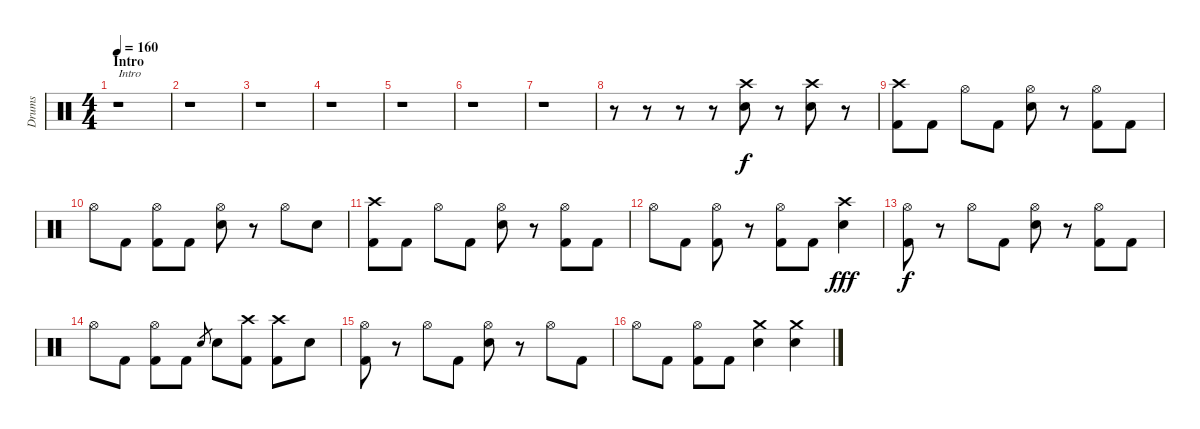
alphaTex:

\track ("Drums" "Drums") {instrument percussion}
\staff {score}
\articulation defaults
\ts (4 4)
\section ("" "Intro")
\tempo 160
\clef neutral
\ks c
r.1{txt "Intro" dy f} |
r.1 |
r.1 |
r.1 |
r.1 |
r.1 |
r.1 |
r.8 r.8 r.8 r.8 ("Crash high (hit)" "Electric Snare (hit)").8 r.8 ("Crash high (hit)" "Electric Snare (hit)").8 r.8 |
("Crash high (hit)" "Kick (hit) 2").8 "Kick (hit) 2".8 "Hi-Hat (open)".8 "Kick (hit) 2".8 ("Hi-Hat (open)" "Electric Snare (hit)").8 r.8 ("Hi-Hat (open)" "Kick (hit) 2").8 "Kick (hit) 2".8 |
"Hi-Hat (open)".8 "Kick (hit) 2".8 ("Hi-Hat (open)" "Kick (hit) 2").8 "Kick (hit) 2".8 ("Hi-Hat (open)" "Electric Snare (hit)").8 r.8 "Hi-Hat (open)".8 "Electric Snare (hit)".8 |
("Crash high (hit)" "Kick (hit) 2").8 "Kick (hit) 2".8 "Hi-Hat (open)".8 "Kick (hit) 2".8 ("Hi-Hat (open)" "Electric Snare (hit)").8 r.8 ("Hi-Hat (open)" "Kick (hit) 2").8 "Kick (hit) 2".8 |
"Hi-Hat (open)".8 "Kick (hit) 2".8 ("Hi-Hat (open)" "Kick (hit) 2").8 r.8 ("Hi-Hat (open)" "Kick (hit) 2").8 "Kick (hit) 2".8 ("Crash high (hit)" "Electric Snare (hit)").4{dy fff} |
("Hi-Hat (open)" "Kick (hit) 2").8{dy f} r.8 "Hi-Hat (open)".8 "Kick (hit) 2".8 ("Hi-Hat (open)" "Electric Snare (hit)").8 r.8 ("Hi-Hat (open)" "Kick (hit) 2").8 "Kick (hit) 2".8 |
"Hi-Hat (open)".8 "Kick (hit) 2".8 ("Hi-Hat (open)" "Kick (hit) 2").8 "Kick (hit) 2".8 "Electric Snare (hit)".8{gr} "Electric Snare (hit)".8 ("Crash high (hit)" "Kick (hit) 2").8 ("Crash high (hit)" "Kick (hit) 2").8 "Electric Snare (hit)".8 |
("Hi-Hat (open)" "Kick (hit) 2").8 r.8 "Hi-Hat (open)".8 "Kick (hit) 2".8 ("Hi-Hat (open)" "Electric Snare (hit)").8 r.8 "Hi-Hat (open)".8 "Kick (hit) 2".8 |
"Hi-Hat (open)".8 "Kick (hit) 2".8 ("Hi-Hat (open)" "Kick (hit) 2").8 "Kick (hit) 2".8 ("Crash medium (hit)" "Electric Snare (hit)").4 ("Crash medium (hit)" "Electric Snare (hit)").4
